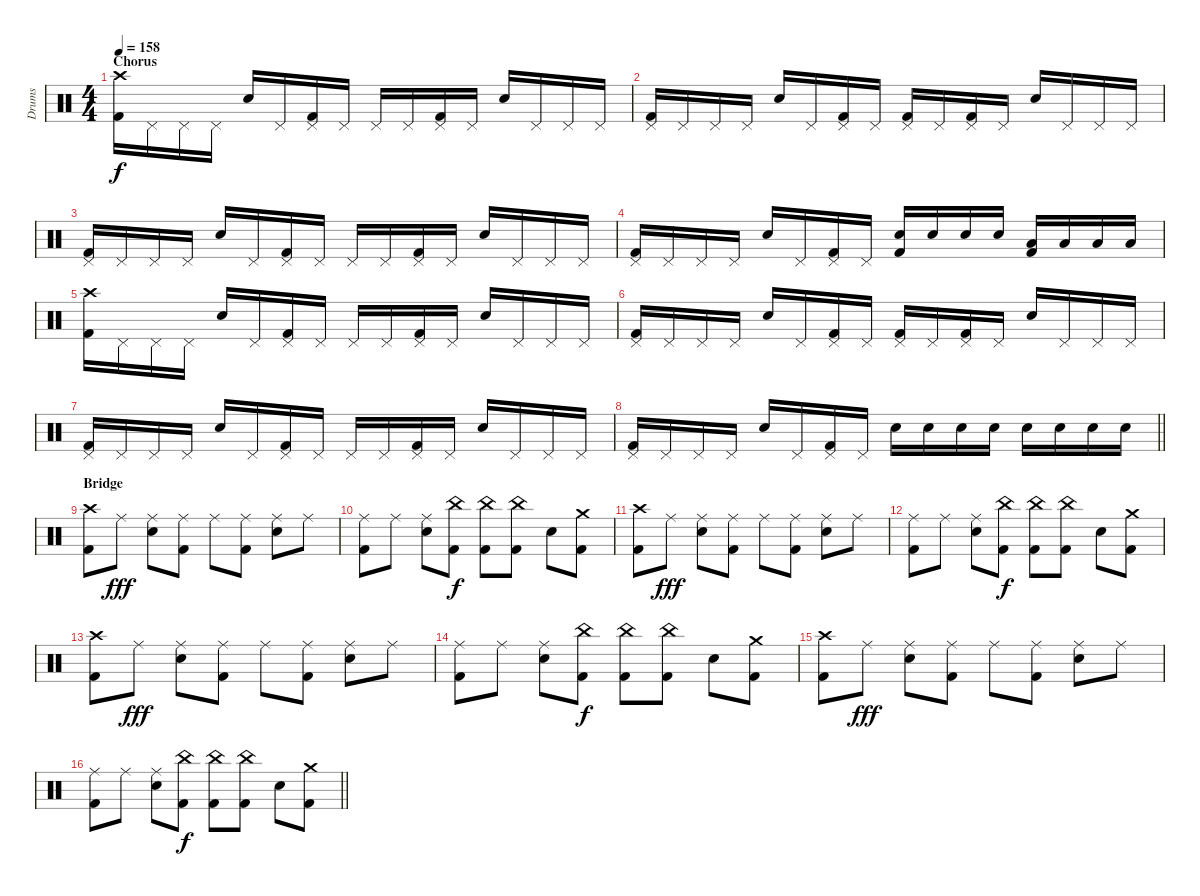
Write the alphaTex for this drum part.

\track ("Drums" "Drums") {instrument percussion}
\staff {score}
\articulation defaults
\ts (4 4)
\section ("" "Chorus")
\tempo 158
\clef neutral
\ks c
("Crash high (hit)" "Kick (hit) 2").16{dy f} "Pedal Hi-Hat (hit)".16 "Pedal Hi-Hat (hit)".16 "Pedal Hi-Hat (hit)".16 "Electric Snare (hit)".16 "Pedal Hi-Hat (hit)".16 ("Pedal Hi-Hat (hit)" "Kick (hit) 2").16 "Pedal Hi-Hat (hit)".16 "Pedal Hi-Hat (hit)".16 "Pedal Hi-Hat (hit)".16 ("Pedal Hi-Hat (hit)" "Kick (hit) 2").16 "Pedal Hi-Hat (hit)".16 "Electric Snare (hit)".16 "Pedal Hi-Hat (hit)".16 "Pedal Hi-Hat (hit)".16 "Pedal Hi-Hat (hit)".16 |
("Pedal Hi-Hat (hit)" "Kick (hit) 2").16 "Pedal Hi-Hat (hit)".16 "Pedal Hi-Hat (hit)".16 "Pedal Hi-Hat (hit)".16 "Electric Snare (hit)".16 "Pedal Hi-Hat (hit)".16 ("Pedal Hi-Hat (hit)" "Kick (hit) 2").16 "Pedal Hi-Hat (hit)".16 ("Pedal Hi-Hat (hit)" "Kick (hit) 2").16 "Pedal Hi-Hat (hit)".16 ("Pedal Hi-Hat (hit)" "Kick (hit) 2").16 "Pedal Hi-Hat (hit)".16 "Electric Snare (hit)".16 "Pedal Hi-Hat (hit)".16 "Pedal Hi-Hat (hit)".16 "Pedal Hi-Hat (hit)".16 |
("Pedal Hi-Hat (hit)" "Kick (hit) 2").16 "Pedal Hi-Hat (hit)".16 "Pedal Hi-Hat (hit)".16 "Pedal Hi-Hat (hit)".16 "Electric Snare (hit)".16 "Pedal Hi-Hat (hit)".16 ("Pedal Hi-Hat (hit)" "Kick (hit) 2").16 "Pedal Hi-Hat (hit)".16 "Pedal Hi-Hat (hit)".16 "Pedal Hi-Hat (hit)".16 ("Pedal Hi-Hat (hit)" "Kick (hit) 2").16 "Pedal Hi-Hat (hit)".16 "Electric Snare (hit)".16 "Pedal Hi-Hat (hit)".16 "Pedal Hi-Hat (hit)".16 "Pedal Hi-Hat (hit)".16 |
("Pedal Hi-Hat (hit)" "Kick (hit) 2").16 "Pedal Hi-Hat (hit)".16 "Pedal Hi-Hat (hit)".16 "Pedal Hi-Hat (hit)".16 "Electric Snare (hit)".16 "Pedal Hi-Hat (hit)".16 ("Pedal Hi-Hat (hit)" "Kick (hit) 2").16 "Pedal Hi-Hat (hit)".16 ("Electric Snare (hit)" "Kick (hit) 2").16 "Electric Snare (hit)".16 "Electric Snare (hit)".16 "Electric Snare (hit)".16 ("Low Tom (hit)" "Kick (hit) 2").16 "Low Tom (hit)".16 "Low Tom (hit)".16 "Low Tom (hit)".16 |
("Crash high (hit)" "Kick (hit) 2").16 "Pedal Hi-Hat (hit)".16 "Pedal Hi-Hat (hit)".16 "Pedal Hi-Hat (hit)".16 "Electric Snare (hit)".16 "Pedal Hi-Hat (hit)".16 ("Pedal Hi-Hat (hit)" "Kick (hit) 2").16 "Pedal Hi-Hat (hit)".16 "Pedal Hi-Hat (hit)".16 "Pedal Hi-Hat (hit)".16 ("Pedal Hi-Hat (hit)" "Kick (hit) 2").16 "Pedal Hi-Hat (hit)".16 "Electric Snare (hit)".16 "Pedal Hi-Hat (hit)".16 "Pedal Hi-Hat (hit)".16 "Pedal Hi-Hat (hit)".16 |
("Pedal Hi-Hat (hit)" "Kick (hit) 2").16 "Pedal Hi-Hat (hit)".16 "Pedal Hi-Hat (hit)".16 "Pedal Hi-Hat (hit)".16 "Electric Snare (hit)".16 "Pedal Hi-Hat (hit)".16 ("Pedal Hi-Hat (hit)" "Kick (hit) 2").16 "Pedal Hi-Hat (hit)".16 ("Pedal Hi-Hat (hit)" "Kick (hit) 2").16 "Pedal Hi-Hat (hit)".16 ("Pedal Hi-Hat (hit)" "Kick (hit) 2").16 "Pedal Hi-Hat (hit)".16 "Electric Snare (hit)".16 "Pedal Hi-Hat (hit)".16 "Pedal Hi-Hat (hit)".16 "Pedal Hi-Hat (hit)".16 |
("Pedal Hi-Hat (hit)" "Kick (hit) 2").16 "Pedal Hi-Hat (hit)".16 "Pedal Hi-Hat (hit)".16 "Pedal Hi-Hat (hit)".16 "Electric Snare (hit)".16 "Pedal Hi-Hat (hit)".16 ("Pedal Hi-Hat (hit)" "Kick (hit) 2").16 "Pedal Hi-Hat (hit)".16 "Pedal Hi-Hat (hit)".16 "Pedal Hi-Hat (hit)".16 ("Pedal Hi-Hat (hit)" "Kick (hit) 2").16 "Pedal Hi-Hat (hit)".16 "Electric Snare (hit)".16 "Pedal Hi-Hat (hit)".16 "Pedal Hi-Hat (hit)".16 "Pedal Hi-Hat (hit)".16 |
\barLineRight lightlight
("Pedal Hi-Hat (hit)" "Kick (hit) 2").16 "Pedal Hi-Hat (hit)".16 "Pedal Hi-Hat (hit)".16 "Pedal Hi-Hat (hit)".16 "Electric Snare (hit)".16 "Pedal Hi-Hat (hit)".16 ("Pedal Hi-Hat (hit)" "Kick (hit) 2").16 "Pedal Hi-Hat (hit)".16 "Electric Snare (hit)".16 "Electric Snare (hit)".16 "Electric Snare (hit)".16 "Electric Snare (hit)".16 "Electric Snare (hit)".16 "Electric Snare (hit)".16 "Electric Snare (hit)".16 "Electric Snare (hit)".16 |
\section ("" "Bridge")
("Crash high (hit)" "Kick (hit) 2").8 "Ride (middle)".8{dy fff} ("Ride (middle)" "Electric Snare (hit)").8 ("Ride (middle)" "Kick (hit) 2").8 "Ride (middle)".8 ("Ride (middle)" "Kick (hit) 2").8 ("Ride (middle)" "Electric Snare (hit)").8 "Ride (middle)".8 |
("Ride (middle)" "Kick (hit) 2").8 "Ride (middle)".8 ("Ride (middle)" "Electric Snare (hit)").8 ("China (hit)" "Kick (hit) 2").8{dy f} ("China (hit)" "Kick (hit) 2").8 ("China (hit)" "Kick (hit) 2").8 "Electric Snare (hit)".8 ("Crash medium (hit)" "Kick (hit) 2").8 |
("Crash high (hit)" "Kick (hit) 2").8 "Ride (middle)".8{dy fff} ("Ride (middle)" "Electric Snare (hit)").8 ("Ride (middle)" "Kick (hit) 2").8 "Ride (middle)".8 ("Ride (middle)" "Kick (hit) 2").8 ("Ride (middle)" "Electric Snare (hit)").8 "Ride (middle)".8 |
("Ride (middle)" "Kick (hit) 2").8 "Ride (middle)".8 ("Ride (middle)" "Electric Snare (hit)").8 ("China (hit)" "Kick (hit) 2").8{dy f} ("China (hit)" "Kick (hit) 2").8 ("China (hit)" "Kick (hit) 2").8 "Electric Snare (hit)".8 ("Crash medium (hit)" "Kick (hit) 2").8 |
("Crash high (hit)" "Kick (hit) 2").8 "Ride (middle)".8{dy fff} ("Ride (middle)" "Electric Snare (hit)").8 ("Ride (middle)" "Kick (hit) 2").8 "Ride (middle)".8 ("Ride (middle)" "Kick (hit) 2").8 ("Ride (middle)" "Electric Snare (hit)").8 "Ride (middle)".8 |
("Ride (middle)" "Kick (hit) 2").8 "Ride (middle)".8 ("Ride (middle)" "Electric Snare (hit)").8 ("China (hit)" "Kick (hit) 2").8{dy f} ("China (hit)" "Kick (hit) 2").8 ("China (hit)" "Kick (hit) 2").8 "Electric Snare (hit)".8 ("Crash medium (hit)" "Kick (hit) 2").8 |
("Crash high (hit)" "Kick (hit) 2").8 "Ride (middle)".8{dy fff} ("Ride (middle)" "Electric Snare (hit)").8 ("Ride (middle)" "Kick (hit) 2").8 "Ride (middle)".8 ("Ride (middle)" "Kick (hit) 2").8 ("Ride (middle)" "Electric Snare (hit)").8 "Ride (middle)".8 |
\barLineRight lightlight
("Ride (middle)" "Kick (hit) 2").8 "Ride (middle)".8 ("Ride (middle)" "Electric Snare (hit)").8 ("China (hit)" "Kick (hit) 2").8{dy f} ("China (hit)" "Kick (hit) 2").8 ("China (hit)" "Kick (hit) 2").8 "Electric Snare (hit)".8 ("Crash medium (hit)" "Kick (hit) 2").8
